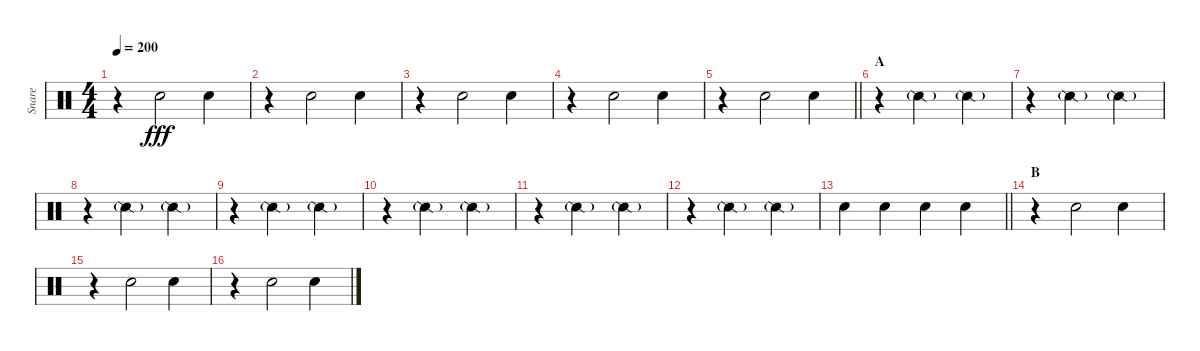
\track ("Snare" "Snare") {instrument percussion}
\staff {score}
\articulation defaults
\ts (4 4)
\tempo 200
\clef neutral
\ks c
r.4{dy fff} "Snare (hit) 2".2 "Snare (hit) 2".4 |
r.4 "Snare (hit) 2".2 "Snare (hit) 2".4 |
r.4 "Snare (hit) 2".2 "Snare (hit) 2".4 |
r.4 "Snare (hit) 2".2 "Snare (hit) 2".4 |
\barLineRight lightlight
r.4 "Snare (hit) 2".2 "Snare (hit) 2".4 |
\section ("" "A")
r.4 "Snare (side stick) 2"{g}.2 "Snare (side stick) 2"{g}.4 |
r.4 "Snare (side stick) 2"{g}.2 "Snare (side stick) 2"{g}.4 |
r.4 "Snare (side stick) 2"{g}.2 "Snare (side stick) 2"{g}.4 |
r.4 "Snare (side stick) 2"{g}.2 "Snare (side stick) 2"{g}.4 |
r.4 "Snare (side stick) 2"{g}.2 "Snare (side stick) 2"{g}.4 |
r.4 "Snare (side stick) 2"{g}.2 "Snare (side stick) 2"{g}.4 |
r.4 "Snare (side stick) 2"{g}.2 "Snare (side stick) 2"{g}.4 |
\barLineRight lightlight "Snare (hit) 2".4 "Snare (hit) 2".4 "Snare (hit) 2".4 "Snare (hit) 2".4
|
\section ("" "B")
r.4 "Snare (hit) 2".2 "Snare (hit) 2".4 |
r.4 "Snare (hit) 2".2 "Snare (hit) 2".4 |
r.4 "Snare (hit) 2".2 "Snare (hit) 2".4
